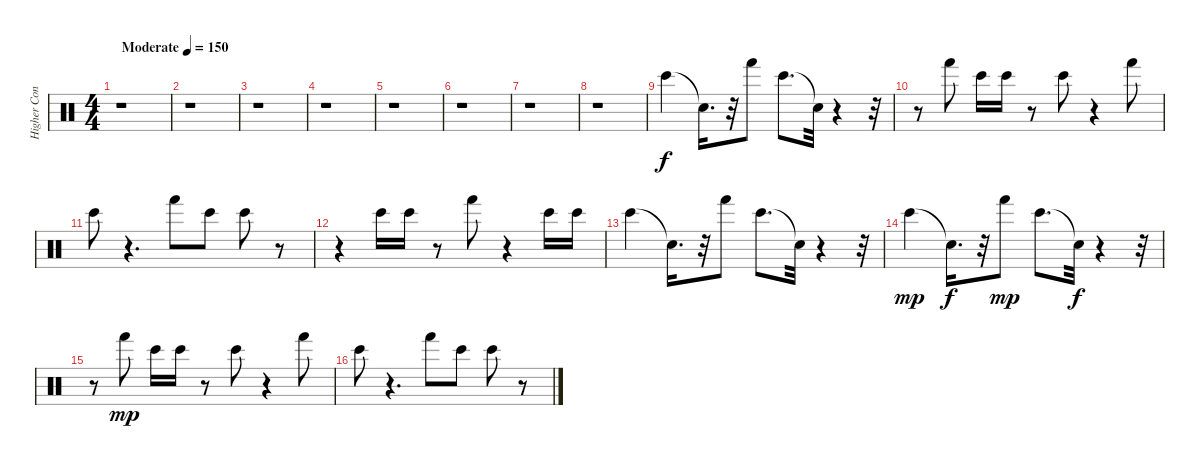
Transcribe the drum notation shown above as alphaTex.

\track ("Higher Conga Drum" "Higher Con") {instrument percussion}
\staff {score}
\articulation defaults
\ts (4 4)
\tempo (150 "Moderate")
\clef neutral
\ks c
r.1{dy f} |
r.1 |
r.1 |
r.1 |
r.1 |
r.1 |
r.1 |
r.1 |
"Bongo High (hit)".4 "Snare (hit)"{t}.16{d} r.32 "Hand (hit)".8 "Bongo High (hit)".8{d} "Snare (hit)"{t}.32 r.4 r.32 |
r.8 "Hand (hit)".8 "Bongo High (hit)".16 "Bongo High (hit)".16 r.8 "Bongo High (hit)".8 r.4 "Hand (hit)".8 |
"Bongo High (hit)".8 r.4{d} "Hand (hit)".8 "Bongo High (hit)".8 "Bongo High (hit)".8 r.8 |
r.4 "Bongo High (hit)".16 "Bongo High (hit)".16 r.8 "Hand (hit)".8 r.4 "Bongo High (hit)".16 "Bongo High (hit)".16 |
"Bongo High (hit)".4 "Snare (hit)"{t}.16{d} r.32 "Hand (hit)".8 "Bongo High (hit)".8{d} "Snare (hit)"{t}.32 r.4 r.32 |
"Bongo High (hit)".4{dy mp} "Snare (hit)"{t}.16{d dy f} r.32 "Hand (hit)".8{dy mp} "Bongo High (hit)".8{d} "Snare (hit)"{t}.32{dy f} r.4 r.32 |
r.8 "Hand (hit)".8{dy mp} "Bongo High (hit)".16 "Bongo High (hit)".16 r.8 "Bongo High (hit)".8 r.4 "Hand (hit)".8 |
"Bongo High (hit)".8 r.4{d} "Hand (hit)".8 "Bongo High (hit)".8 "Bongo High (hit)".8 r.8
